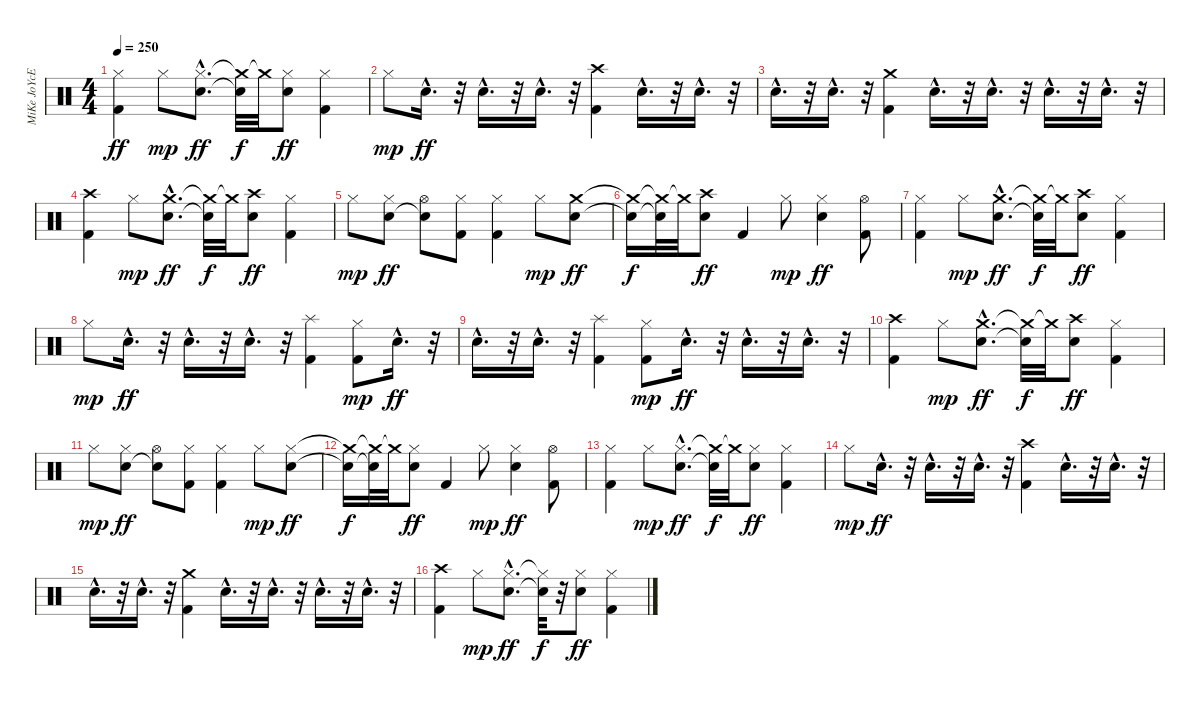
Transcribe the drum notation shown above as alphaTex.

\track ("MiKe JoYcE" "MiKe JoYcE") {instrument percussion}
\staff {score}
\articulation defaults
\ts (4 4)
\tempo 250
\clef neutral
\ks c
("Hi-Hat (closed)" "Kick (hit) 2").4{dy ff} "Hi-Hat (closed)".8{dy mp} ("Hi-Hat (closed)"{hac} "Electric Snare (hit)"{hac}).8{d dy ff} ("Crash medium (hit)"{t} "Electric Snare (hit)"{t}).32{dy f} "Crash medium (hit)"{t}.32 ("Hi-Hat (closed)" "Electric Snare (hit)").8{dy ff} ("Hi-Hat (closed)" "Kick (hit) 2").4 |
"Hi-Hat (closed)".8{dy mp} "Electric Snare (hit)"{hac}.16{d dy ff} r.32 "Electric Snare (hit)"{hac}.16{d} r.32 "Electric Snare (hit)"{hac}.16{d} r.32 ("Crash high (hit)" "Kick (hit) 2").4 "Electric Snare (hit)"{hac}.16{d} r.32 "Electric Snare (hit)"{hac}.16{d} r.32 |
"Electric Snare (hit)"{hac}.16{d} r.32 "Electric Snare (hit)"{hac}.16{d} r.32 ("Crash medium (hit)" "Kick (hit) 2").4 "Electric Snare (hit)"{hac}.16{d} r.32 "Electric Snare (hit)"{hac}.16{d} r.32 "Electric Snare (hit)"{hac}.16{d} r.32 "Electric Snare (hit)"{hac}.16{d} r.32 |
("Crash high (hit)" "Kick (hit) 2").4 "Hi-Hat (closed)".8{dy mp} ("Crash medium (hit)"{hac} "Electric Snare (hit)"{hac}).8{d dy ff} ("Crash medium (hit)"{t} "Electric Snare (hit)"{t}).32{dy f} "Crash medium (hit)"{t}.32 ("Crash high (hit)" "Electric Snare (hit)").8{dy ff} ("Hi-Hat (closed)" "Kick (hit) 2").4 |
"Hi-Hat (closed)".8{dy mp} ("Hi-Hat (closed)" "Electric Snare (hit)").8{dy ff} ("Hi-Hat (open)" "Electric Snare (hit)"{t}).8 ("Hi-Hat (closed)" "Kick (hit) 2").8 ("Hi-Hat (closed)" "Kick (hit) 2").4 "Hi-Hat (closed)".8{dy mp} ("Crash medium (hit)" "Electric Snare (hit)").8{dy ff} |
("Crash medium (hit)"{t} "Electric Snare (hit)"{t}).16{dy f} ("Crash medium (hit)"{t} "Electric Snare (hit)"{t}).32 "Crash medium (hit)"{t}.32 ("Crash high (hit)" "Electric Snare (hit)").8{dy ff} "Kick (hit) 2".4 "Hi-Hat (closed)".8{dy mp} ("Hi-Hat (closed)" "Electric Snare (hit)").4{dy ff} ("Hi-Hat (open)" "Kick (hit) 2").8 |
("Hi-Hat (closed)" "Kick (hit) 2").4 "Hi-Hat (closed)".8{dy mp} ("Crash medium (hit)"{hac} "Electric Snare (hit)"{hac}).8{d dy ff} ("Crash medium (hit)"{t} "Electric Snare (hit)"{t}).32{dy f} "Crash medium (hit)"{t}.32 ("Crash high (hit)" "Electric Snare (hit)").8{dy ff} ("Hi-Hat (closed)" "Kick (hit) 2").4 |
"Hi-Hat (closed)".8{dy mp} "Electric Snare (hit)"{hac}.16{d dy ff} r.32 "Electric Snare (hit)"{hac}.16{d} r.32 "Electric Snare (hit)"{hac}.16{d} r.32 ("Splash (hit)" "Kick (hit) 2").4 ("Hi-Hat (closed)" "Kick (hit) 2").8{dy mp} "Electric Snare (hit)"{hac}.16{d dy ff} r.32 |
"Electric Snare (hit)"{hac}.16{d} r.32 "Electric Snare (hit)"{hac}.16{d} r.32 ("Splash (hit)" "Kick (hit) 2").4 ("Hi-Hat (closed)" "Kick (hit) 2").8{dy mp} "Electric Snare (hit)"{hac}.16{d dy ff} r.32 "Electric Snare (hit)"{hac}.16{d} r.32 "Electric Snare (hit)"{hac}.16{d} r.32 |
("Crash high (hit)" "Kick (hit) 2").4 "Hi-Hat (closed)".8{dy mp} ("Crash medium (hit)"{hac} "Electric Snare (hit)"{hac}).8{d dy ff} ("Crash medium (hit)"{t} "Electric Snare (hit)"{t}).32{dy f} "Crash medium (hit)"{t}.32 ("Crash high (hit)" "Electric Snare (hit)").8{dy ff} ("Hi-Hat (closed)" "Kick (hit) 2").4 |
"Hi-Hat (closed)".8{dy mp} ("Hi-Hat (closed)" "Electric Snare (hit)").8{dy ff} ("Hi-Hat (open)" "Electric Snare (hit)"{t}).8 ("Hi-Hat (closed)" "Kick (hit) 2").8 ("Hi-Hat (closed)" "Kick (hit) 2").4 "Hi-Hat (closed)".8{dy mp} ("Hi-Hat (closed)" "Electric Snare (hit)").8{dy ff} |
("Crash medium (hit)"{t} "Electric Snare (hit)"{t}).16{dy f} ("Crash medium (hit)"{t} "Electric Snare (hit)"{t}).32 "Crash medium (hit)"{t}.32 ("Hi-Hat (closed)" "Electric Snare (hit)").8{dy ff} "Kick (hit) 2".4 "Hi-Hat (closed)".8{dy mp} ("Hi-Hat (closed)" "Electric Snare (hit)").4{dy ff} ("Hi-Hat (open)" "Kick (hit) 2").8 |
("Hi-Hat (closed)" "Kick (hit) 2").4 "Hi-Hat (closed)".8{dy mp} ("Hi-Hat (closed)"{hac} "Electric Snare (hit)"{hac}).8{d dy ff} ("Crash medium (hit)"{t} "Electric Snare (hit)"{t}).32{dy f} "Crash medium (hit)"{t}.32 ("Hi-Hat (closed)" "Electric Snare (hit)").8{dy ff} ("Hi-Hat (closed)" "Kick (hit) 2").4 |
"Hi-Hat (closed)".8{dy mp} "Electric Snare (hit)"{hac}.16{d dy ff} r.32 "Electric Snare (hit)"{hac}.16{d} r.32 "Electric Snare (hit)"{hac}.16{d} r.32 ("Crash high (hit)" "Kick (hit) 2").4 "Electric Snare (hit)"{hac}.16{d} r.32 "Electric Snare (hit)"{hac}.16{d} r.32 |
"Electric Snare (hit)"{hac}.16{d} r.32 "Electric Snare (hit)"{hac}.16{d} r.32 ("Crash medium (hit)" "Kick (hit) 2").4 "Electric Snare (hit)"{hac}.16{d} r.32 "Electric Snare (hit)"{hac}.16{d} r.32 "Electric Snare (hit)"{hac}.16{d} r.32 "Electric Snare (hit)"{hac}.16{d} r.32 |
("Crash high (hit)" "Kick (hit) 2").4 "Hi-Hat (closed)".8{dy mp} ("Hi-Hat (closed)"{hac} "Electric Snare (hit)"{hac}).8{d dy ff} ("Hi-Hat (closed)"{t} "Electric Snare (hit)"{t}).32{dy f} r.32 ("Hi-Hat (closed)" "Electric Snare (hit)").8{dy ff} ("Hi-Hat (closed)" "Kick (hit) 2").4
